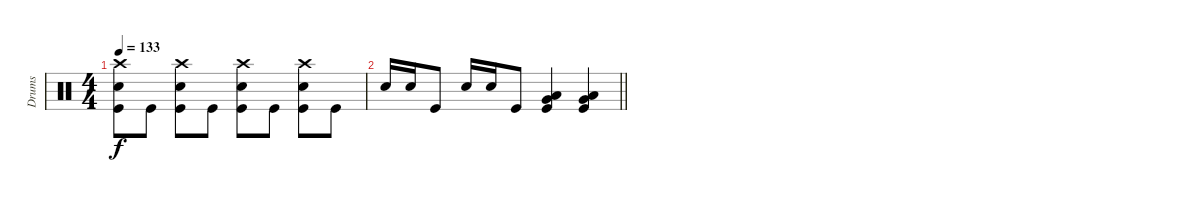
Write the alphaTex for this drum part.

\track ("Drums" "Drums") {instrument percussion}
\staff
\articulation defaults
\ts (4 4)
\tempo 133
\clef neutral
\ks c
("Crash high (hit)" "Electric Snare (hit)" "Kick (hit)").8{dy f} "Kick (hit)".8 ("Crash high (hit)" "Electric Snare (hit)" "Kick (hit)").8 "Kick (hit)".8 ("Crash high (hit)" "Electric Snare (hit)" "Kick (hit)").8 "Kick (hit)".8 ("Crash high (hit)" "Electric Snare (hit)" "Kick (hit)").8 "Kick (hit)".8 |
\barLineRight lightlight "Electric Snare (hit)".16 "Electric Snare (hit)".16 "Kick (hit)".8 "Electric Snare (hit)".16 "Electric Snare (hit)".16 "Kick (hit)".8
("Very Low Tom (hit)" "Low Floor Tom (hit)" "Kick (hit)").4 ("Very Low Tom (hit)" "Low Floor Tom (hit)" "Kick (hit)").4
